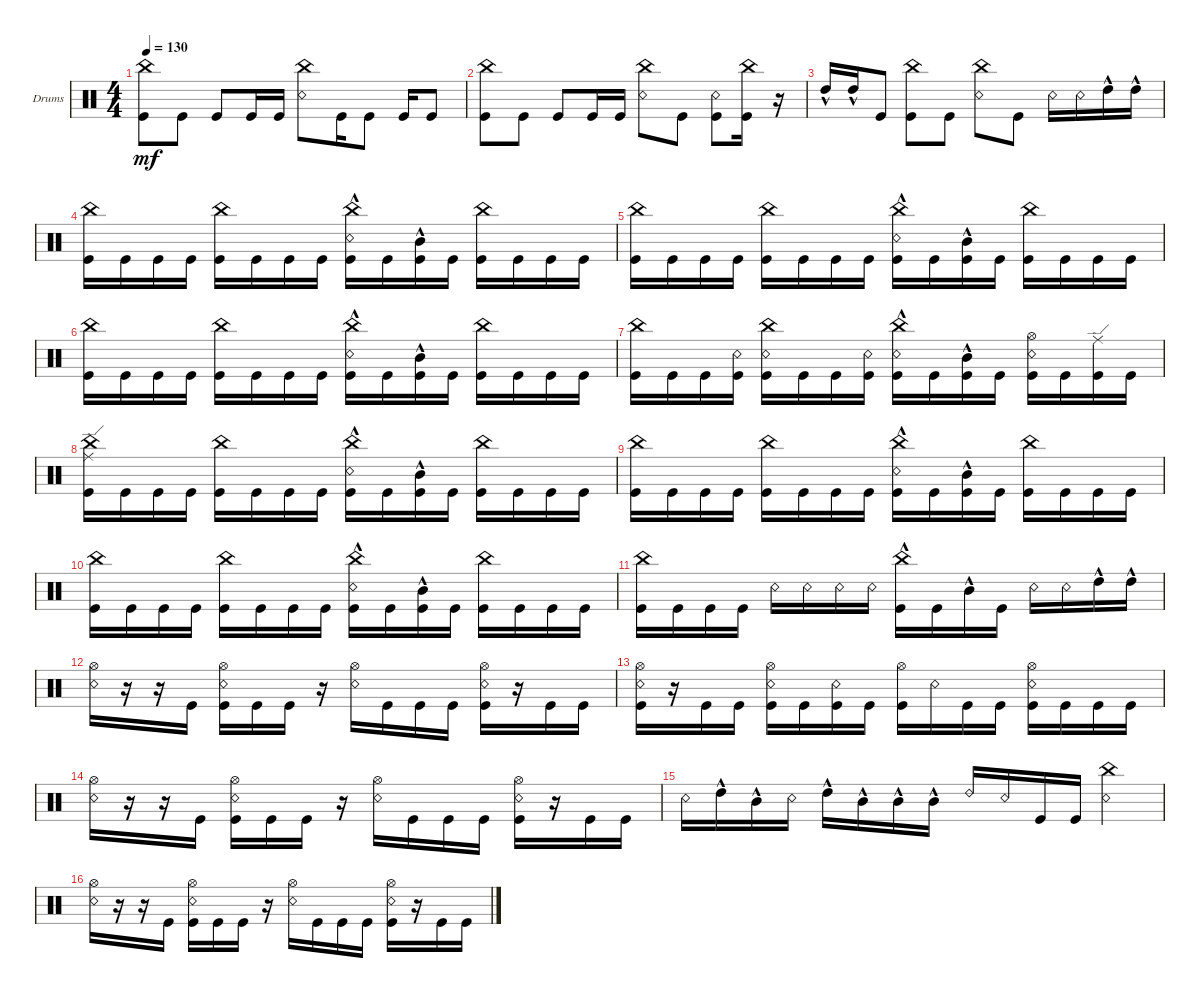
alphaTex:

\defaultSystemsLayout 4
\bracketExtendMode groupsimilarinstruments
\firstSystemTrackNameOrientation horizontal
\otherSystemsTrackNameOrientation horizontal
\track ("Drumkit" "Drums") {instrument percussion}
\staff {score}
\articulation defaults
\ts (4 4)
\tempo 130
\clef neutral
\ks c
("China (hit)" "Kick (hit)").8{dy mf} "Kick (hit)".8 "Kick (hit)".8 "Kick (hit)".16 "Kick (hit)".16 ("Snare (rim shot)" "China (hit)").8 "Kick (hit)".16 "Kick (hit)".8 "Kick (hit)".16 "Kick (hit)".8 |
("China (hit)" "Kick (hit)").8 "Kick (hit)".8 "Kick (hit)".8 "Kick (hit)".16 "Kick (hit)".16 ("Snare (rim shot)" "China (hit)").8 "Kick (hit)".8 ("Kick (hit)" "Snare (rim shot)").8 ("Kick (hit)" "China (hit)").16 r.16 |
"High Tom (hit)"{hac}.16 "High Tom (hit)"{hac}.16 "Kick (hit)".8 ("Kick (hit)" "China (hit)").8 "Kick (hit)".8 ("Snare (rim shot)" "China (hit)").8 "Kick (hit)".8 "Snare (rim shot)".16 "Snare (rim shot)".16 "High Tom (hit)"{hac}.16 "High Tom (hit)"{hac}.16 |
("Kick (hit)" "China (hit)").16 "Kick (hit)".16 "Kick (hit)".16 "Kick (hit)".16 ("Kick (hit)" "China (hit)").16 "Kick (hit)".16 "Kick (hit)".16 "Kick (hit)".16 ("Kick (hit)"{hac} "Snare (rim shot)" "China (hit)").16 "Kick (hit)".16 ("Kick (hit)"{hac} "Mid Tom (hit)"{hac}).16 "Kick (hit)".16 ("Kick (hit)" "China (hit)").16 "Kick (hit)".16 "Kick (hit)".16 "Kick (hit)".16 |
("Kick (hit)" "China (hit)").16 "Kick (hit)".16 "Kick (hit)".16 "Kick (hit)".16 ("Kick (hit)" "China (hit)").16 "Kick (hit)".16 "Kick (hit)".16 "Kick (hit)".16 ("Kick (hit)"{hac} "Snare (rim shot)" "China (hit)").16 "Kick (hit)".16 ("Kick (hit)"{hac} "Mid Tom (hit)"{hac}).16 "Kick (hit)".16 ("Kick (hit)" "China (hit)").16 "Kick (hit)".16 "Kick (hit)".16 "Kick (hit)".16 |
("Kick (hit)" "China (hit)").16 "Kick (hit)".16 "Kick (hit)".16 "Kick (hit)".16 ("Kick (hit)" "China (hit)").16 "Kick (hit)".16 "Kick (hit)".16 "Kick (hit)".16 ("Kick (hit)"{hac} "Snare (rim shot)" "China (hit)").16 "Kick (hit)".16 ("Kick (hit)"{hac} "Mid Tom (hit)"{hac}).16 "Kick (hit)".16 ("Kick (hit)" "China (hit)").16 "Kick (hit)".16 "Kick (hit)".16 "Kick (hit)".16 |
("Kick (hit)" "China (hit)").16 "Kick (hit)".16 "Kick (hit)".16 ("Kick (hit)" "Snare (rim shot)").16 ("Kick (hit)" "China (hit)" "Snare (rim shot)").16 "Kick (hit)".16 "Kick (hit)".16 ("Kick (hit)" "Snare (rim shot)").16 ("Kick (hit)"{hac} "Snare (rim shot)" "China (hit)").16 "Kick (hit)".16 ("Kick (hit)"{hac} "Mid Tom (hit)"{hac}).16 "Kick (hit)".16 ("Kick (hit)" "Snare (rim shot)" "Hi-Hat (open)").16 "Kick (hit)".16 ("Kick (hit)" "Ride (edge)").16 "Kick (hit)".16 |
("Kick (hit)" "China (hit)" "Ride (edge)").16 "Kick (hit)".16 "Kick (hit)".16 "Kick (hit)".16 ("Kick (hit)" "China (hit)").16 "Kick (hit)".16 "Kick (hit)".16 "Kick (hit)".16 ("Kick (hit)"{hac} "Snare (rim shot)" "China (hit)").16 "Kick (hit)".16 ("Kick (hit)"{hac} "Mid Tom (hit)"{hac}).16 "Kick (hit)".16 ("Kick (hit)" "China (hit)").16 "Kick (hit)".16 "Kick (hit)".16 "Kick (hit)".16 |
("Kick (hit)" "China (hit)").16 "Kick (hit)".16 "Kick (hit)".16 "Kick (hit)".16 ("Kick (hit)" "China (hit)").16 "Kick (hit)".16 "Kick (hit)".16 "Kick (hit)".16 ("Kick (hit)"{hac} "Snare (rim shot)" "China (hit)").16 "Kick (hit)".16 ("Kick (hit)"{hac} "Mid Tom (hit)"{hac}).16 "Kick (hit)".16 ("Kick (hit)" "China (hit)").16 "Kick (hit)".16 "Kick (hit)".16 "Kick (hit)".16 |
("Kick (hit)" "China (hit)").16 "Kick (hit)".16 "Kick (hit)".16 "Kick (hit)".16 ("Kick (hit)" "China (hit)").16 "Kick (hit)".16 "Kick (hit)".16 "Kick (hit)".16 ("Kick (hit)"{hac} "Snare (rim shot)" "China (hit)").16 "Kick (hit)".16 ("Kick (hit)"{hac} "Mid Tom (hit)"{hac}).16 "Kick (hit)".16 ("Kick (hit)" "China (hit)").16 "Kick (hit)".16 "Kick (hit)".16 "Kick (hit)".16 |
("Kick (hit)" "China (hit)").16 "Kick (hit)".16 "Kick (hit)".16 "Kick (hit)".16 "Snare (rim shot)".16 "Snare (rim shot)".16 "Snare (rim shot)".16 "Snare (rim shot)".16 ("Kick (hit)"{hac} "China (hit)").16 "Kick (hit)".16 "Mid Tom (hit)"{hac}.16 "Kick (hit)".16 "Snare (rim shot)".16 "Snare (rim shot)".16 "High Tom (hit)"{hac}.16 "High Tom (hit)"{hac}.16 |
("Snare (rim shot)" "Hi-Hat (open)").16 r.16 r.16 "Kick (hit)".16 ("Kick (hit)" "Hi-Hat (open)" "Snare (rim shot)").16 "Kick (hit)".16 "Kick (hit)".16 r.16 ("Hi-Hat (open)" "Snare (rim shot)").16 "Kick (hit)".16 "Kick (hit)".16 "Kick (hit)".16 ("Kick (hit)" "Snare (rim shot)" "Hi-Hat (open)").16 r.16 "Kick (hit)".16 "Kick (hit)".16 |
("Kick (hit)" "Snare (rim shot)" "Hi-Hat (open)").16 r.16 "Kick (hit)".16 "Kick (hit)".16 ("Kick (hit)" "Snare (rim shot)" "Hi-Hat (open)").16 "Kick (hit)".16 ("Kick (hit)" "Snare (rim shot)").16 "Kick (hit)".16 ("Kick (hit)" "Hi-Hat (open)").16 "Snare (rim shot)".16 "Kick (hit)".16 "Kick (hit)".16 ("Kick (hit)" "Snare (rim shot)" "Hi-Hat (open)").16 "Kick (hit)".16 "Kick (hit)".16 "Kick (hit)".16 |
("Snare (rim shot)" "Hi-Hat (open)").16 r.16 r.16 "Kick (hit)".16 ("Kick (hit)" "Hi-Hat (open)" "Snare (rim shot)").16 "Kick (hit)".16 "Kick (hit)".16 r.16 ("Hi-Hat (open)" "Snare (rim shot)").16 "Kick (hit)".16 "Kick (hit)".16 "Kick (hit)".16 ("Kick (hit)" "Snare (rim shot)" "Hi-Hat (open)").16 r.16 "Kick (hit)".16 "Kick (hit)".16 |
"Snare (rim shot)".16 "High Tom (hit)"{hac}.16 "Mid Tom (hit)"{hac}.16 "Snare (rim shot)".16 "High Tom (hit)"{hac}.16 "Mid Tom (hit)"{hac}.16 "Mid Tom (hit)"{hac}.16 "Mid Tom (hit)"{hac}.16 "Ride (bell) 2".16 "Snare (rim shot)".16 "Kick (hit)".16 "Kick (hit)".16 ("Snare (rim shot)" "China (hit)").4 |
("Snare (rim shot)" "Hi-Hat (open)").16 r.16 r.16 "Kick (hit)".16 ("Kick (hit)" "Hi-Hat (open)" "Snare (rim shot)").16 "Kick (hit)".16 "Kick (hit)".16 r.16 ("Hi-Hat (open)" "Snare (rim shot)").16 "Kick (hit)".16 "Kick (hit)".16 "Kick (hit)".16 ("Kick (hit)" "Snare (rim shot)" "Hi-Hat (open)").16 r.16 "Kick (hit)".16 "Kick (hit)".16
